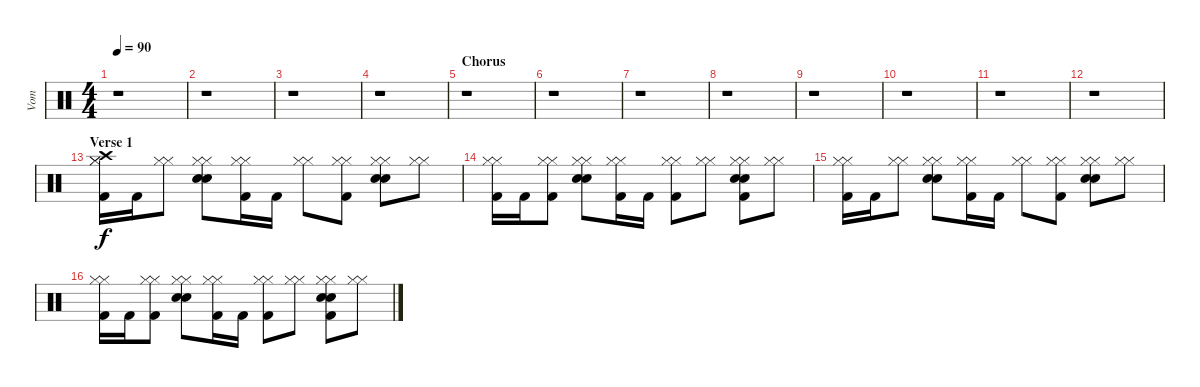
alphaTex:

\track ("Vom" "Vom") {instrument percussion}
\staff {score}
\articulation defaults
\ts (4 4)
\tempo 90
\clef neutral
\ks c
r.1{dy f} |
r.1 |
r.1 |
r.1 |
\section ("" "Chorus")
r.1 |
r.1 |
r.1 |
r.1 |
r.1 |
r.1 |
r.1 |
r.1 |
\section ("" "Verse 1")
("Crash high (hit)" "Hi-Hat (closed)" "Hi-Hat (closed)" "Kick (hit) 2").16 "Kick (hit) 2".16 ("Hi-Hat (closed)" "Hi-Hat (closed)").8 ("Snare (hit) 2" "Snare (hit) 2" "Hi-Hat (closed)" "Hi-Hat (closed)").8 ("Hi-Hat (closed)" "Hi-Hat (closed)" "Kick (hit) 2").16 "Kick (hit) 2".16 ("Hi-Hat (closed)" "Hi-Hat (closed)").8 ("Hi-Hat (closed)" "Hi-Hat (closed)" "Kick (hit) 2").8 ("Snare (hit) 2" "Snare (hit) 2" "Hi-Hat (closed)" "Hi-Hat (closed)").8 ("Hi-Hat (closed)" "Hi-Hat (closed)").8 |
("Hi-Hat (closed)" "Hi-Hat (closed)" "Kick (hit) 2").16 "Kick (hit) 2".16 ("Hi-Hat (closed)" "Hi-Hat (closed)" "Kick (hit) 2").8 ("Snare (hit) 2" "Snare (hit) 2" "Hi-Hat (closed)" "Hi-Hat (closed)").8 ("Hi-Hat (closed)" "Hi-Hat (closed)" "Kick (hit) 2").16 "Kick (hit) 2".16 ("Hi-Hat (closed)" "Hi-Hat (closed)" "Kick (hit) 2").8 ("Hi-Hat (closed)" "Hi-Hat (closed)").8 ("Snare (hit) 2" "Snare (hit) 2" "Hi-Hat (closed)" "Hi-Hat (closed)" "Kick (hit) 2").8 ("Hi-Hat (closed)" "Hi-Hat (closed)").8 |
("Hi-Hat (closed)" "Hi-Hat (closed)" "Kick (hit) 2").16 "Kick (hit) 2".16 ("Hi-Hat (closed)" "Hi-Hat (closed)").8 ("Snare (hit) 2" "Snare (hit) 2" "Hi-Hat (closed)" "Hi-Hat (closed)").8 ("Hi-Hat (closed)" "Hi-Hat (closed)" "Kick (hit) 2").16 "Kick (hit) 2".16 ("Hi-Hat (closed)" "Hi-Hat (closed)").8 ("Hi-Hat (closed)" "Hi-Hat (closed)" "Kick (hit) 2").8 ("Snare (hit) 2" "Snare (hit) 2" "Hi-Hat (closed)" "Hi-Hat (closed)").8 ("Hi-Hat (closed)" "Hi-Hat (closed)").8 |
("Hi-Hat (closed)" "Hi-Hat (closed)" "Kick (hit) 2").16 "Kick (hit) 2".16 ("Hi-Hat (closed)" "Hi-Hat (closed)" "Kick (hit) 2").8 ("Snare (hit) 2" "Snare (hit) 2" "Hi-Hat (closed)" "Hi-Hat (closed)").8 ("Hi-Hat (closed)" "Hi-Hat (closed)" "Kick (hit) 2").16 "Kick (hit) 2".16 ("Hi-Hat (closed)" "Hi-Hat (closed)" "Kick (hit) 2").8 ("Hi-Hat (closed)" "Hi-Hat (closed)").8 ("Snare (hit) 2" "Snare (hit) 2" "Hi-Hat (closed)" "Hi-Hat (closed)" "Kick (hit) 2").8 ("Hi-Hat (closed)" "Hi-Hat (closed)").8
